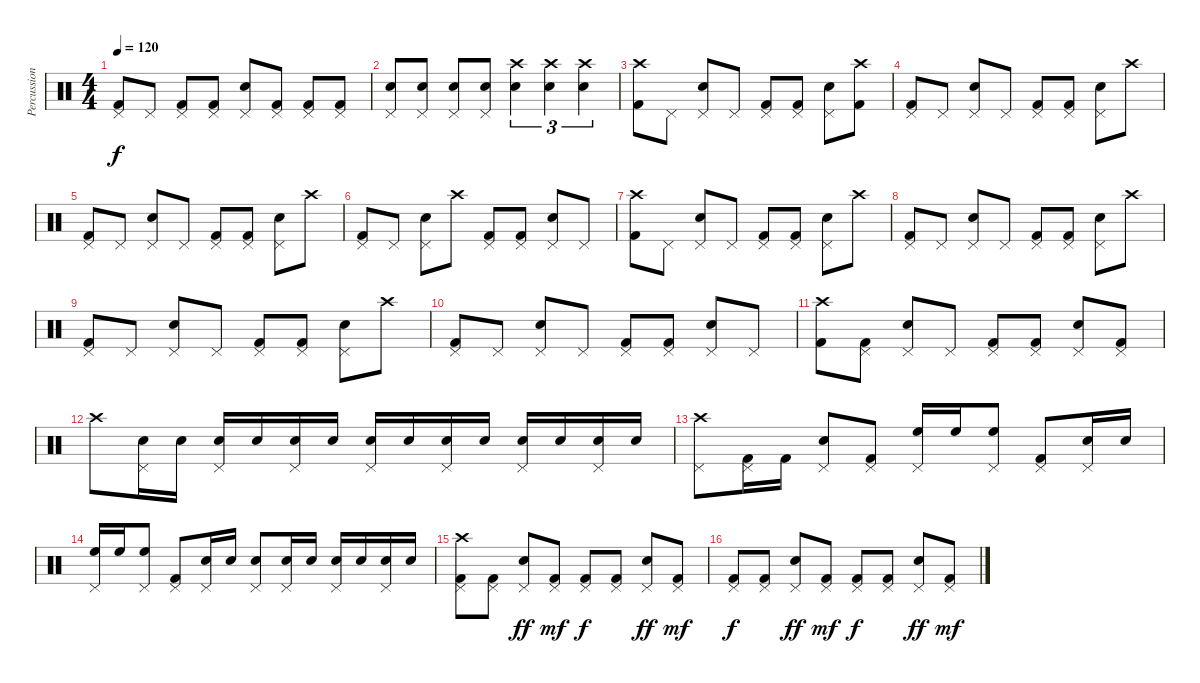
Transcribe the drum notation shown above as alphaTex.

\track ("Percussion" "Percussion") {instrument percussion}
\staff {score}
\articulation defaults
\ts (4 4)
\tempo 120
\clef neutral
\ks c
("Pedal Hi-Hat (hit)" "Kick (hit) 2").8{dy f} "Pedal Hi-Hat (hit)".8 ("Pedal Hi-Hat (hit)" "Kick (hit) 2").8 ("Pedal Hi-Hat (hit)" "Kick (hit) 2").8 ("Pedal Hi-Hat (hit)" "Electric Snare (hit)").8 ("Pedal Hi-Hat (hit)" "Kick (hit) 2").8 ("Pedal Hi-Hat (hit)" "Kick (hit) 2").8 ("Pedal Hi-Hat (hit)" "Kick (hit) 2").8 |
("Pedal Hi-Hat (hit)" "Electric Snare (hit)").8 ("Pedal Hi-Hat (hit)" "Electric Snare (hit)").8 ("Pedal Hi-Hat (hit)" "Electric Snare (hit)").8 ("Pedal Hi-Hat (hit)" "Electric Snare (hit)").8 ("Crash high (hit)" "Electric Snare (hit)").4{tu (3 2)} ("Crash high (hit)" "Electric Snare (hit)").4{tu (3 2)} ("Crash high (hit)" "Electric Snare (hit)").4{tu (3 2)} |
("Crash high (hit)" "Kick (hit) 2").8 "Pedal Hi-Hat (hit)".8 ("Pedal Hi-Hat (hit)" "Electric Snare (hit)").8 "Pedal Hi-Hat (hit)".8 ("Pedal Hi-Hat (hit)" "Kick (hit) 2").8 ("Pedal Hi-Hat (hit)" "Kick (hit) 2").8 ("Pedal Hi-Hat (hit)" "Electric Snare (hit)").8 ("Crash high (hit)" "Kick (hit) 2").8 |
("Pedal Hi-Hat (hit)" "Kick (hit) 2").8 "Pedal Hi-Hat (hit)".8 ("Pedal Hi-Hat (hit)" "Electric Snare (hit)").8 "Pedal Hi-Hat (hit)".8 ("Pedal Hi-Hat (hit)" "Kick (hit) 2").8 ("Pedal Hi-Hat (hit)" "Kick (hit) 2").8 ("Pedal Hi-Hat (hit)" "Electric Snare (hit)").8 "Crash high (hit)".8 |
("Pedal Hi-Hat (hit)" "Kick (hit) 2").8 "Pedal Hi-Hat (hit)".8 ("Pedal Hi-Hat (hit)" "Electric Snare (hit)").8 "Pedal Hi-Hat (hit)".8 ("Pedal Hi-Hat (hit)" "Kick (hit) 2").8 ("Pedal Hi-Hat (hit)" "Kick (hit) 2").8 ("Pedal Hi-Hat (hit)" "Electric Snare (hit)").8 "Crash high (hit)".8 |
("Pedal Hi-Hat (hit)" "Kick (hit) 2").8 "Pedal Hi-Hat (hit)".8 ("Pedal Hi-Hat (hit)" "Electric Snare (hit)").8 "Crash high (hit)".8 ("Pedal Hi-Hat (hit)" "Kick (hit) 2").8 ("Pedal Hi-Hat (hit)" "Kick (hit) 2").8 ("Pedal Hi-Hat (hit)" "Electric Snare (hit)").8 "Pedal Hi-Hat (hit)".8 |
("Crash high (hit)" "Kick (hit) 2").8 "Pedal Hi-Hat (hit)".8 ("Pedal Hi-Hat (hit)" "Electric Snare (hit)").8 "Pedal Hi-Hat (hit)".8 ("Pedal Hi-Hat (hit)" "Kick (hit) 2").8 ("Pedal Hi-Hat (hit)" "Kick (hit) 2").8 ("Pedal Hi-Hat (hit)" "Electric Snare (hit)").8 "Crash high (hit)".8 |
("Pedal Hi-Hat (hit)" "Kick (hit) 2").8 "Pedal Hi-Hat (hit)".8 ("Pedal Hi-Hat (hit)" "Electric Snare (hit)").8 "Pedal Hi-Hat (hit)".8 ("Pedal Hi-Hat (hit)" "Kick (hit) 2").8 ("Pedal Hi-Hat (hit)" "Kick (hit) 2").8 ("Pedal Hi-Hat (hit)" "Electric Snare (hit)").8 "Crash high (hit)".8 |
("Pedal Hi-Hat (hit)" "Kick (hit) 2").8 "Pedal Hi-Hat (hit)".8 ("Pedal Hi-Hat (hit)" "Electric Snare (hit)").8 "Pedal Hi-Hat (hit)".8 ("Pedal Hi-Hat (hit)" "Kick (hit) 2").8 ("Pedal Hi-Hat (hit)" "Kick (hit) 2").8 ("Pedal Hi-Hat (hit)" "Electric Snare (hit)").8 "Crash high (hit)".8 |
("Pedal Hi-Hat (hit)" "Kick (hit) 2").8 "Pedal Hi-Hat (hit)".8 ("Pedal Hi-Hat (hit)" "Electric Snare (hit)").8 "Pedal Hi-Hat (hit)".8 ("Pedal Hi-Hat (hit)" "Kick (hit) 2").8 ("Pedal Hi-Hat (hit)" "Kick (hit) 2").8 ("Pedal Hi-Hat (hit)" "Electric Snare (hit)").8 "Pedal Hi-Hat (hit)".8 |
("Crash high (hit)" "Kick (hit) 2").8 ("Pedal Hi-Hat (hit)" "Kick (hit) 2").8 ("Pedal Hi-Hat (hit)" "Electric Snare (hit)").8 "Pedal Hi-Hat (hit)".8 ("Pedal Hi-Hat (hit)" "Kick (hit) 2").8 ("Pedal Hi-Hat (hit)" "Kick (hit) 2").8 ("Pedal Hi-Hat (hit)" "Electric Snare (hit)").8 ("Pedal Hi-Hat (hit)" "Kick (hit) 2").8 |
"Crash high (hit)".8 ("Pedal Hi-Hat (hit)" "Electric Snare (hit)").16 "Electric Snare (hit)".16 ("Pedal Hi-Hat (hit)" "Electric Snare (hit)").16 "Electric Snare (hit)".16 ("Pedal Hi-Hat (hit)" "Electric Snare (hit)").16 "Electric Snare (hit)".16 ("Pedal Hi-Hat (hit)" "Electric Snare (hit)").16 "Electric Snare (hit)".16 ("Pedal Hi-Hat (hit)" "Electric Snare (hit)").16 "Electric Snare (hit)".16 ("Pedal Hi-Hat (hit)" "Electric Snare (hit)").16 "Electric Snare (hit)".16 ("Pedal Hi-Hat (hit)" "Electric Snare (hit)").16 "Electric Snare (hit)".16 |
("Pedal Hi-Hat (hit)" "Crash high (hit)").8 ("Pedal Hi-Hat (hit)" "Kick (hit) 2").16 "Kick (hit) 2".16 ("Pedal Hi-Hat (hit)" "Electric Snare (hit)").8 ("Pedal Hi-Hat (hit)" "Kick (hit) 2").8 ("Pedal Hi-Hat (hit)" "High Floor Tom (hit)").16 "High Floor Tom (hit)".16 ("Pedal Hi-Hat (hit)" "High Floor Tom (hit)").8 ("Pedal Hi-Hat (hit)" "Kick (hit) 2").8 ("Pedal Hi-Hat (hit)" "Electric Snare (hit)").16 "Electric Snare (hit)".16 |
("Pedal Hi-Hat (hit)" "High Floor Tom (hit)").16 "High Floor Tom (hit)".16 ("Pedal Hi-Hat (hit)" "High Floor Tom (hit)").8 ("Pedal Hi-Hat (hit)" "Kick (hit) 2").8 ("Pedal Hi-Hat (hit)" "Electric Snare (hit)").16 "Electric Snare (hit)".16 ("Pedal Hi-Hat (hit)" "Electric Snare (hit)").8 ("Pedal Hi-Hat (hit)" "Electric Snare (hit)").16 "Electric Snare (hit)".16 ("Pedal Hi-Hat (hit)" "Electric Snare (hit)").16 "Electric Snare (hit)".16 ("Pedal Hi-Hat (hit)" "Electric Snare (hit)").16 "Electric Snare (hit)".16 |
("Pedal Hi-Hat (hit)" "Kick (hit) 2" "Crash high (hit)").8 ("Pedal Hi-Hat (hit)" "Kick (hit) 2").8 ("Pedal Hi-Hat (hit)" "Electric Snare (hit)").8{dy ff} ("Pedal Hi-Hat (hit)" "Kick (hit) 2").8{dy mf} ("Pedal Hi-Hat (hit)" "Kick (hit) 2").8{dy f} ("Pedal Hi-Hat (hit)" "Kick (hit) 2").8 ("Pedal Hi-Hat (hit)" "Electric Snare (hit)").8{dy ff} ("Pedal Hi-Hat (hit)" "Kick (hit) 2").8{dy mf} |
("Pedal Hi-Hat (hit)" "Kick (hit) 2").8{dy f} ("Pedal Hi-Hat (hit)" "Kick (hit) 2").8 ("Pedal Hi-Hat (hit)" "Electric Snare (hit)").8{dy ff} ("Pedal Hi-Hat (hit)" "Kick (hit) 2").8{dy mf} ("Pedal Hi-Hat (hit)" "Kick (hit) 2").8{dy f} ("Pedal Hi-Hat (hit)" "Kick (hit) 2").8 ("Pedal Hi-Hat (hit)" "Electric Snare (hit)").8{dy ff} ("Pedal Hi-Hat (hit)" "Kick (hit) 2").8{dy mf}
